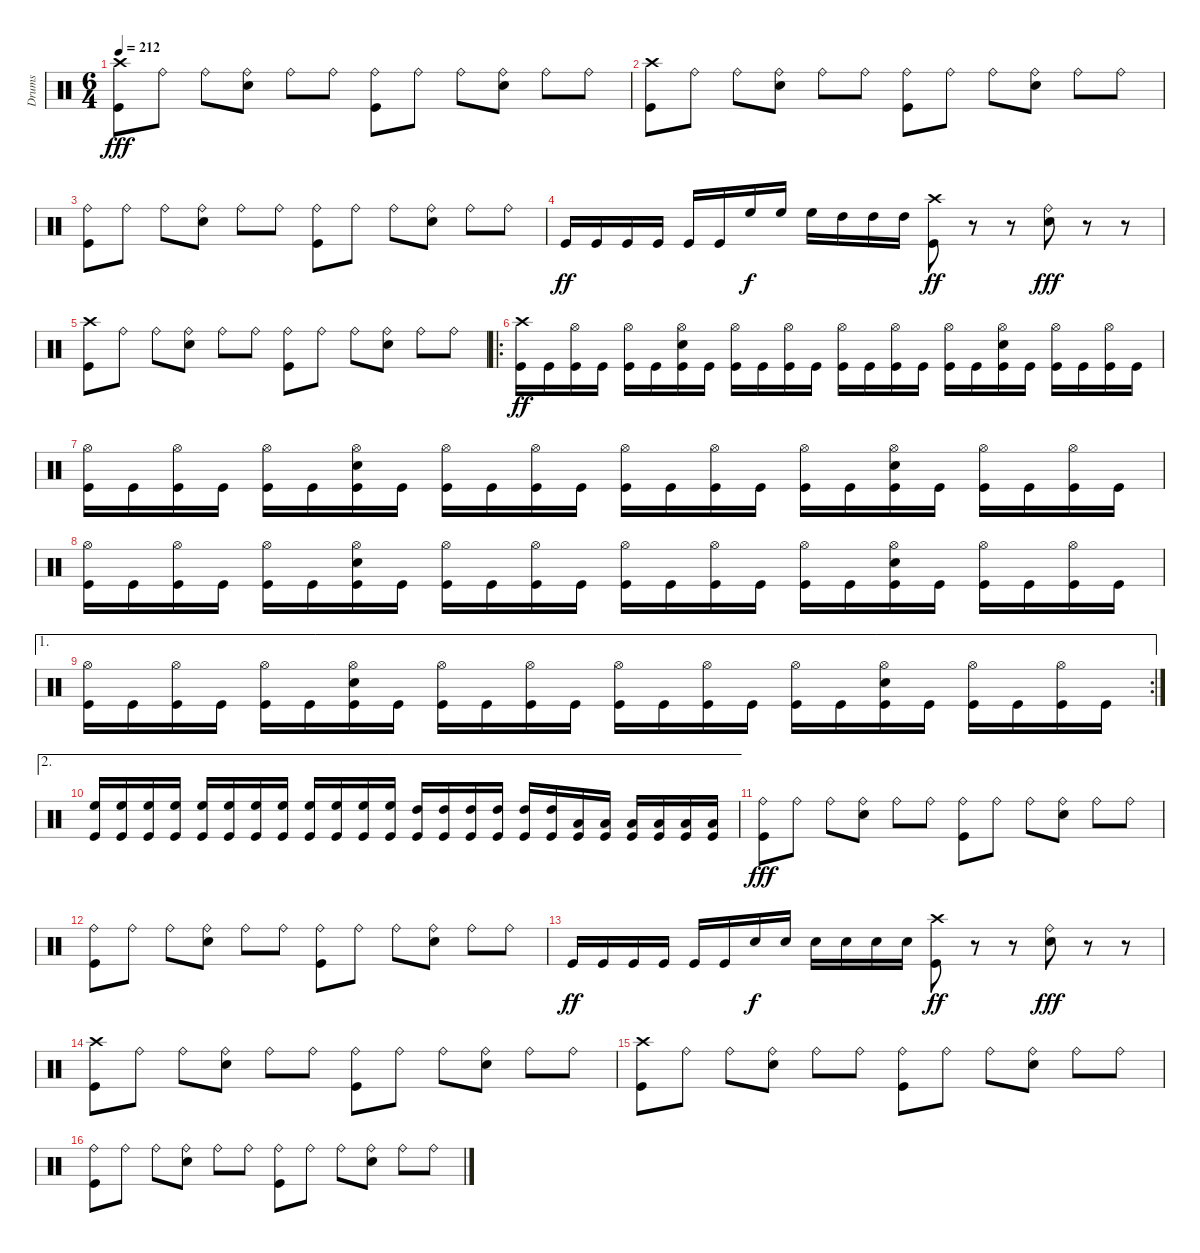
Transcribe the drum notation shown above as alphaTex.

\track ("Drums" "Drums") {instrument percussion}
\staff {score}
\articulation defaults
\ts (6 4)
\tempo 212
\clef neutral
\ks c
("Crash high (hit)" "Kick (hit)").8{dy fff} "Ride (bell)".8 "Ride (bell)".8 ("Ride (bell)" "Snare (hit) 2").8 "Ride (bell)".8 "Ride (bell)".8 ("Ride (bell)" "Kick (hit)").8 "Ride (bell)".8 "Ride (bell)".8 ("Ride (bell)" "Snare (hit) 2").8 "Ride (bell)".8 "Ride (bell)".8 |
("Crash high (hit)" "Kick (hit)").8 "Ride (bell)".8 "Ride (bell)".8 ("Ride (bell)" "Snare (hit) 2").8 "Ride (bell)".8 "Ride (bell)".8 ("Ride (bell)" "Kick (hit)").8 "Ride (bell)".8 "Ride (bell)".8 ("Ride (bell)" "Snare (hit) 2").8 "Ride (bell)".8 "Ride (bell)".8 |
("Ride (bell)" "Kick (hit)").8 "Ride (bell)".8 "Ride (bell)".8 ("Ride (bell)" "Snare (hit) 2").8 "Ride (bell)".8 "Ride (bell)".8 ("Ride (bell)" "Kick (hit)").8 "Ride (bell)".8 "Ride (bell)".8 ("Ride (bell)" "Snare (hit) 2").8 "Ride (bell)".8 "Ride (bell)".8 |
"Kick (hit)".16{dy ff} "Kick (hit)".16 "Kick (hit)".16 "Kick (hit)".16 "Kick (hit)".16 "Kick (hit)".16 "High Floor Tom (hit)".16{dy f} "High Floor Tom (hit)".16 "High Floor Tom (hit)".16 "High Tom (hit)".16 "High Tom (hit)".16 "High Tom (hit)".16 ("Crash high (hit)" "Kick (hit)").8{dy ff} r.8 r.8 ("Ride (bell)" "Snare (hit) 2").8{dy fff} r.8 r.8 |
("Crash high (hit)" "Kick (hit)").8 "Ride (bell)".8 "Ride (bell)".8 ("Ride (bell)" "Snare (hit) 2").8 "Ride (bell)".8 "Ride (bell)".8 ("Ride (bell)" "Kick (hit)").8 "Ride (bell)".8 "Ride (bell)".8 ("Ride (bell)" "Snare (hit) 2").8 "Ride (bell)".8 "Ride (bell)".8 |
\ro
("Crash high (hit)" "Kick (hit)").16{dy ff} "Kick (hit)".16 ("Hi-Hat (open)" "Kick (hit)").16 "Kick (hit)".16 ("Hi-Hat (open)" "Kick (hit)").16 "Kick (hit)".16 ("Hi-Hat (open)" "Snare (hit) 2" "Kick (hit)").16 "Kick (hit)".16 ("Hi-Hat (open)" "Kick (hit)").16 "Kick (hit)".16 ("Hi-Hat (open)" "Kick (hit)").16 "Kick (hit)".16 ("Hi-Hat (open)" "Kick (hit)").16 "Kick (hit)".16 ("Hi-Hat (open)" "Kick (hit)").16 "Kick (hit)".16 ("Hi-Hat (open)" "Kick (hit)").16 "Kick (hit)".16 ("Hi-Hat (open)" "Snare (hit) 2" "Kick (hit)").16 "Kick (hit)".16 ("Hi-Hat (open)" "Kick (hit)").16 "Kick (hit)".16 ("Hi-Hat (open)" "Kick (hit)").16 "Kick (hit)".16 |
("Hi-Hat (open)" "Kick (hit)").16 "Kick (hit)".16 ("Hi-Hat (open)" "Kick (hit)").16 "Kick (hit)".16 ("Hi-Hat (open)" "Kick (hit)").16 "Kick (hit)".16 ("Hi-Hat (open)" "Snare (hit) 2" "Kick (hit)").16 "Kick (hit)".16 ("Hi-Hat (open)" "Kick (hit)").16 "Kick (hit)".16 ("Hi-Hat (open)" "Kick (hit)").16 "Kick (hit)".16 ("Hi-Hat (open)" "Kick (hit)").16 "Kick (hit)".16 ("Hi-Hat (open)" "Kick (hit)").16 "Kick (hit)".16 ("Hi-Hat (open)" "Kick (hit)").16 "Kick (hit)".16 ("Hi-Hat (open)" "Snare (hit) 2" "Kick (hit)").16 "Kick (hit)".16 ("Hi-Hat (open)" "Kick (hit)").16 "Kick (hit)".16 ("Hi-Hat (open)" "Kick (hit)").16 "Kick (hit)".16 |
("Hi-Hat (open)" "Kick (hit)").16 "Kick (hit)".16 ("Hi-Hat (open)" "Kick (hit)").16 "Kick (hit)".16 ("Hi-Hat (open)" "Kick (hit)").16 "Kick (hit)".16 ("Hi-Hat (open)" "Snare (hit) 2" "Kick (hit)").16 "Kick (hit)".16 ("Hi-Hat (open)" "Kick (hit)").16 "Kick (hit)".16 ("Hi-Hat (open)" "Kick (hit)").16 "Kick (hit)".16 ("Hi-Hat (open)" "Kick (hit)").16 "Kick (hit)".16 ("Hi-Hat (open)" "Kick (hit)").16 "Kick (hit)".16 ("Hi-Hat (open)" "Kick (hit)").16 "Kick (hit)".16 ("Hi-Hat (open)" "Snare (hit) 2" "Kick (hit)").16 "Kick (hit)".16 ("Hi-Hat (open)" "Kick (hit)").16 "Kick (hit)".16 ("Hi-Hat (open)" "Kick (hit)").16 "Kick (hit)".16 |
\ae 1
\rc 2
("Hi-Hat (open)" "Kick (hit)").16 "Kick (hit)".16 ("Hi-Hat (open)" "Kick (hit)").16 "Kick (hit)".16 ("Hi-Hat (open)" "Kick (hit)").16 "Kick (hit)".16 ("Hi-Hat (open)" "Snare (hit) 2" "Kick (hit)").16 "Kick (hit)".16 ("Hi-Hat (open)" "Kick (hit)").16 "Kick (hit)".16 ("Hi-Hat (open)" "Kick (hit)").16 "Kick (hit)".16 ("Hi-Hat (open)" "Kick (hit)").16 "Kick (hit)".16 ("Hi-Hat (open)" "Kick (hit)").16 "Kick (hit)".16 ("Hi-Hat (open)" "Kick (hit)").16 "Kick (hit)".16 ("Hi-Hat (open)" "Snare (hit) 2" "Kick (hit)").16 "Kick (hit)".16 ("Hi-Hat (open)" "Kick (hit)").16 "Kick (hit)".16 ("Hi-Hat (open)" "Kick (hit)").16 "Kick (hit)".16 |
\ae 2
("High Floor Tom (hit)" "Kick (hit)").16 ("High Floor Tom (hit)" "Kick (hit)").16 ("High Floor Tom (hit)" "Kick (hit)").16 ("High Floor Tom (hit)" "Kick (hit)").16 ("High Floor Tom (hit)" "Kick (hit)").16 ("High Floor Tom (hit)" "Kick (hit)").16 ("High Floor Tom (hit)" "Kick (hit)").16 ("High Floor Tom (hit)" "Kick (hit)").16 ("High Floor Tom (hit)" "Kick (hit)").16 ("High Floor Tom (hit)" "Kick (hit)").16 ("High Floor Tom (hit)" "Kick (hit)").16 ("High Floor Tom (hit)" "Kick (hit)").16 ("High Tom (hit)" "Kick (hit)").16 ("High Tom (hit)" "Kick (hit)").16 ("High Tom (hit)" "Kick (hit)").16 ("High Tom (hit)" "Kick (hit)").16 ("High Tom (hit)" "Kick (hit)").16 ("High Tom (hit)" "Kick (hit)").16 ("Low Tom (hit)" "Kick (hit)").16 ("Low Tom (hit)" "Kick (hit)").16 ("Low Tom (hit)" "Kick (hit)").16 ("Low Tom (hit)" "Kick (hit)").16 ("Low Tom (hit)" "Kick (hit)").16 ("Low Tom (hit)" "Kick (hit)").16 |
("Ride (bell)" "Kick (hit)").8{dy fff} "Ride (bell)".8 "Ride (bell)".8 ("Ride (bell)" "Snare (hit) 2").8 "Ride (bell)".8 "Ride (bell)".8 ("Ride (bell)" "Kick (hit)").8 "Ride (bell)".8 "Ride (bell)".8 ("Ride (bell)" "Snare (hit) 2").8 "Ride (bell)".8 "Ride (bell)".8 |
("Ride (bell)" "Kick (hit)").8 "Ride (bell)".8 "Ride (bell)".8 ("Ride (bell)" "Snare (hit) 2").8 "Ride (bell)".8 "Ride (bell)".8 ("Ride (bell)" "Kick (hit)").8 "Ride (bell)".8 "Ride (bell)".8 ("Ride (bell)" "Snare (hit) 2").8 "Ride (bell)".8 "Ride (bell)".8 |
"Kick (hit)".16{dy ff} "Kick (hit)".16 "Kick (hit)".16 "Kick (hit)".16 "Kick (hit)".16 "Kick (hit)".16 "Snare (hit) 2".16{dy f} "Snare (hit) 2".16 "Snare (hit) 2".16 "Snare (hit) 2".16 "Snare (hit) 2".16 "Snare (hit) 2".16 ("Crash high (hit)" "Kick (hit)").8{dy ff} r.8 r.8 ("Ride (bell)" "Snare (hit) 2").8{dy fff} r.8 r.8 |
("Crash high (hit)" "Kick (hit)").8 "Ride (bell)".8 "Ride (bell)".8 ("Ride (bell)" "Snare (hit) 2").8 "Ride (bell)".8 "Ride (bell)".8 ("Ride (bell)" "Kick (hit)").8 "Ride (bell)".8 "Ride (bell)".8 ("Ride (bell)" "Snare (hit) 2").8 "Ride (bell)".8 "Ride (bell)".8 |
("Crash high (hit)" "Kick (hit)").8 "Ride (bell)".8 "Ride (bell)".8 ("Ride (bell)" "Snare (hit) 2").8 "Ride (bell)".8 "Ride (bell)".8 ("Ride (bell)" "Kick (hit)").8 "Ride (bell)".8 "Ride (bell)".8 ("Ride (bell)" "Snare (hit) 2").8 "Ride (bell)".8 "Ride (bell)".8 |
("Ride (bell)" "Kick (hit)").8 "Ride (bell)".8 "Ride (bell)".8 ("Ride (bell)" "Snare (hit) 2").8 "Ride (bell)".8 "Ride (bell)".8 ("Ride (bell)" "Kick (hit)").8 "Ride (bell)".8 "Ride (bell)".8 ("Ride (bell)" "Snare (hit) 2").8 "Ride (bell)".8 "Ride (bell)".8
